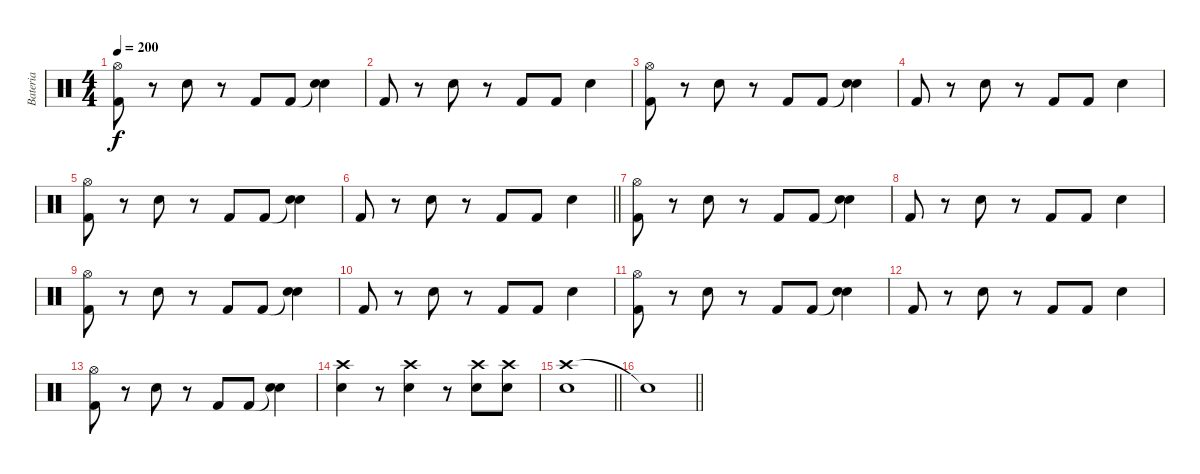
\track ("Bateria" "Bateria") {instrument percussion}
\staff {score}
\articulation defaults
\ts (4 4)
\tempo 200
\clef neutral
\ks c
("Hi-Hat (open)" "Kick (hit) 2").8{dy f} r.8 "Snare (hit) 2".8 r.8 "Kick (hit) 2".8 "Kick (hit) 2".8 ("Snare (hit)"{t} "Snare (hit) 2").4 |
"Kick (hit) 2".8 r.8 "Snare (hit) 2".8 r.8 "Kick (hit) 2".8 "Kick (hit) 2".8 "Snare (hit) 2".4 |
("Hi-Hat (open)" "Kick (hit) 2").8 r.8 "Snare (hit) 2".8 r.8 "Kick (hit) 2".8 "Kick (hit) 2".8 ("Snare (hit)"{t} "Snare (hit) 2").4 |
"Kick (hit) 2".8 r.8 "Snare (hit) 2".8 r.8 "Kick (hit) 2".8 "Kick (hit) 2".8 "Snare (hit) 2".4 |
("Hi-Hat (open)" "Kick (hit) 2").8 r.8 "Snare (hit) 2".8 r.8 "Kick (hit) 2".8 "Kick (hit) 2".8 ("Snare (hit)"{t} "Snare (hit) 2").4 |
\barLineRight lightlight "Kick (hit) 2".8
r.8 "Snare (hit) 2".8 r.8 "Kick (hit) 2".8 "Kick (hit) 2".8 "Snare (hit) 2".4 |
("Hi-Hat (open)" "Kick (hit) 2").8 r.8 "Snare (hit) 2".8 r.8 "Kick (hit) 2".8 "Kick (hit) 2".8 ("Snare (hit)"{t} "Snare (hit) 2").4 |
"Kick (hit) 2".8 r.8 "Snare (hit) 2".8 r.8 "Kick (hit) 2".8 "Kick (hit) 2".8 "Snare (hit) 2".4 |
("Hi-Hat (open)" "Kick (hit) 2").8 r.8 "Snare (hit) 2".8 r.8 "Kick (hit) 2".8 "Kick (hit) 2".8 ("Snare (hit)"{t} "Snare (hit) 2").4 |
"Kick (hit) 2".8 r.8 "Snare (hit) 2".8 r.8 "Kick (hit) 2".8 "Kick (hit) 2".8 "Snare (hit) 2".4 |
("Hi-Hat (open)" "Kick (hit) 2").8 r.8 "Snare (hit) 2".8 r.8 "Kick (hit) 2".8 "Kick (hit) 2".8 ("Snare (hit)"{t} "Snare (hit) 2").4 |
"Kick (hit) 2".8 r.8 "Snare (hit) 2".8 r.8 "Kick (hit) 2".8 "Kick (hit) 2".8 "Snare (hit) 2".4 |
("Hi-Hat (open)" "Kick (hit) 2").8 r.8 "Snare (hit) 2".8 r.8 "Kick (hit) 2".8 "Kick (hit) 2".8 ("Snare (hit)"{t} "Snare (hit) 2").4 |
("Crash high (hit)" "Snare (hit) 2").4 r.8 ("Crash high (hit)" "Snare (hit) 2").4 r.8 ("Crash high (hit)" "Snare (hit) 2").8 ("Crash high (hit)" "Snare (hit) 2").8 |
\barLineRight lightlight
("Crash high (hit)" "Snare (hit) 2").1 |
\barLineRight lightlight "Snare (hit)"{t}.1
